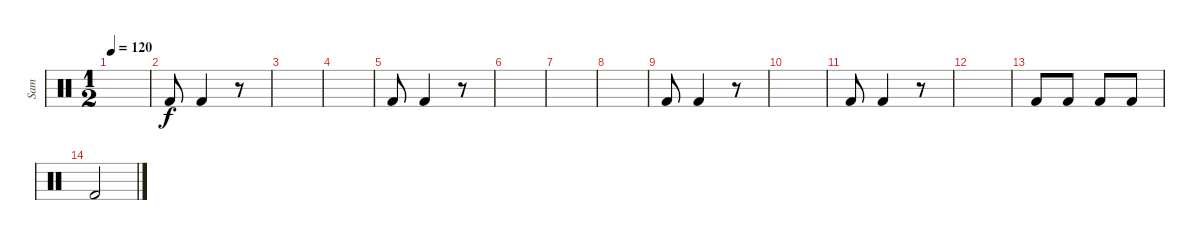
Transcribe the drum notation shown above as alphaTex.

\track ("Sam" "Sam") {instrument percussion}
\staff {score}
\articulation defaults
\ts (1 2)
\tempo 120
\clef neutral
\ks c
|
"Kick (hit) 2".8 "Kick (hit) 2".4 r.8 |
|
|
"Kick (hit) 2".8 "Kick (hit) 2".4 r.8 |
|
|
|
"Kick (hit) 2".8 "Kick (hit) 2".4 r.8 |
|
"Kick (hit) 2".8 "Kick (hit) 2".4 r.8 |
|
"Kick (hit) 2".8 "Kick (hit) 2".8 "Kick (hit) 2".8 "Kick (hit) 2".8 |
"Kick (hit) 2".2
